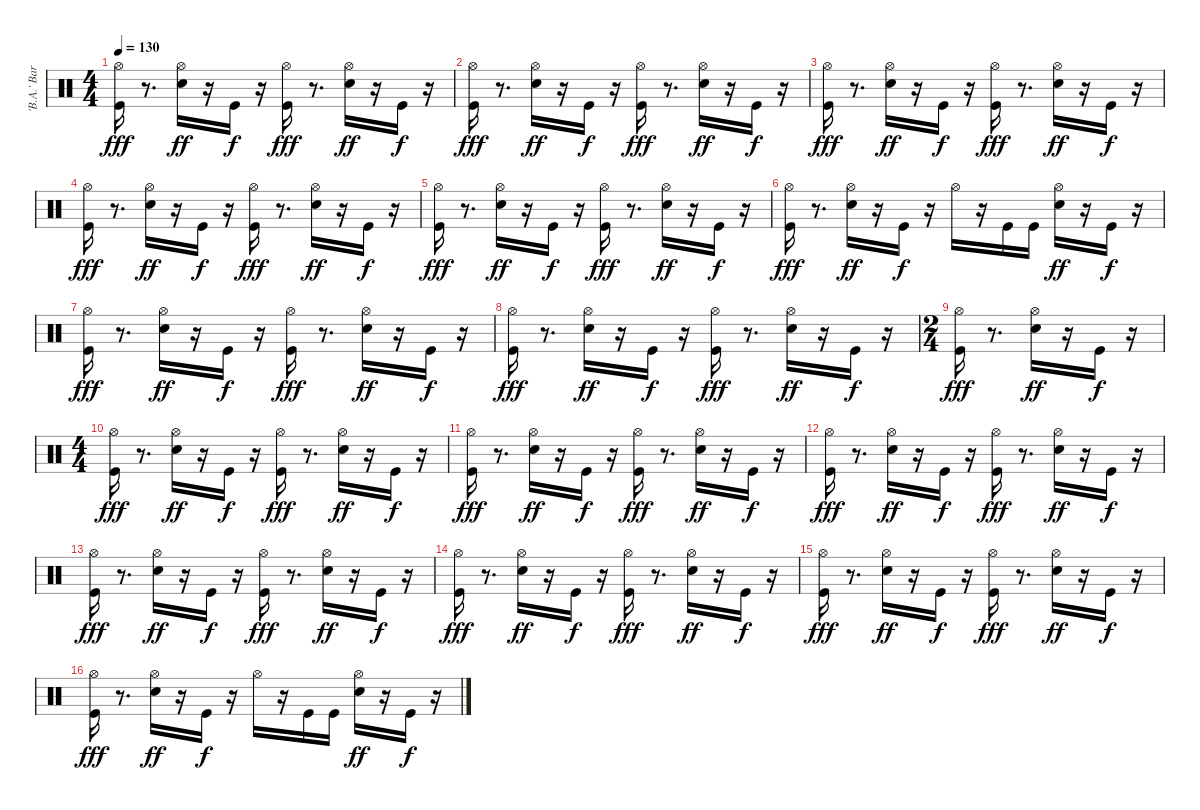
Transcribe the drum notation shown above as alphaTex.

\track ("'B.A.' Baracus" "'B.A.' Bar") {instrument percussion}
\staff {score}
\articulation defaults
\ts (4 4)
\tempo 130
\clef neutral
\ks c
("Hi-Hat (open)" "Kick (hit)").16{dy fff} r.8{d} ("Hi-Hat (open)" "Snare (hit) 2").16{dy ff} r.16 "Kick (hit)".16{dy f} r.16 ("Hi-Hat (open)" "Kick (hit)").16{dy fff} r.8{d} ("Hi-Hat (open)" "Snare (hit) 2").16{dy ff} r.16 "Kick (hit)".16{dy f} r.16 |
("Hi-Hat (open)" "Kick (hit)").16{dy fff} r.8{d} ("Hi-Hat (open)" "Snare (hit) 2").16{dy ff} r.16 "Kick (hit)".16{dy f} r.16 ("Hi-Hat (open)" "Kick (hit)").16{dy fff} r.8{d} ("Hi-Hat (open)" "Snare (hit) 2").16{dy ff} r.16 "Kick (hit)".16{dy f} r.16 |
("Hi-Hat (open)" "Kick (hit)").16{dy fff} r.8{d} ("Hi-Hat (open)" "Snare (hit) 2").16{dy ff} r.16 "Kick (hit)".16{dy f} r.16 ("Hi-Hat (open)" "Kick (hit)").16{dy fff} r.8{d} ("Hi-Hat (open)" "Snare (hit) 2").16{dy ff} r.16 "Kick (hit)".16{dy f} r.16 |
("Hi-Hat (open)" "Kick (hit)").16{dy fff} r.8{d} ("Hi-Hat (open)" "Snare (hit) 2").16{dy ff} r.16 "Kick (hit)".16{dy f} r.16 ("Hi-Hat (open)" "Kick (hit)").16{dy fff} r.8{d} ("Hi-Hat (open)" "Snare (hit) 2").16{dy ff} r.16 "Kick (hit)".16{dy f} r.16 |
("Hi-Hat (open)" "Kick (hit)").16{dy fff} r.8{d} ("Hi-Hat (open)" "Snare (hit) 2").16{dy ff} r.16 "Kick (hit)".16{dy f} r.16 ("Hi-Hat (open)" "Kick (hit)").16{dy fff} r.8{d} ("Hi-Hat (open)" "Snare (hit) 2").16{dy ff} r.16 "Kick (hit)".16{dy f} r.16 |
("Hi-Hat (open)" "Kick (hit)").16{dy fff} r.8{d} ("Hi-Hat (open)" "Snare (hit) 2").16{dy ff} r.16 "Kick (hit)".16{dy f} r.16 "Hi-Hat (open)".16 r.16 "Kick (hit)".16 "Kick (hit)".16 ("Hi-Hat (open)" "Snare (hit) 2").16{dy ff} r.16 "Kick (hit)".16{dy f} r.16 |
("Hi-Hat (open)" "Kick (hit)").16{dy fff} r.8{d} ("Hi-Hat (open)" "Snare (hit) 2").16{dy ff} r.16 "Kick (hit)".16{dy f} r.16 ("Hi-Hat (open)" "Kick (hit)").16{dy fff} r.8{d} ("Hi-Hat (open)" "Snare (hit) 2").16{dy ff} r.16 "Kick (hit)".16{dy f} r.16 |
("Hi-Hat (open)" "Kick (hit)").16{dy fff} r.8{d} ("Hi-Hat (open)" "Snare (hit) 2").16{dy ff} r.16 "Kick (hit)".16{dy f} r.16 ("Hi-Hat (open)" "Kick (hit)").16{dy fff} r.8{d} ("Hi-Hat (open)" "Snare (hit) 2").16{dy ff} r.16 "Kick (hit)".16{dy f} r.16 |
\ts (2 4)
("Hi-Hat (open)" "Kick (hit)").16{dy fff} r.8{d} ("Hi-Hat (open)" "Snare (hit) 2").16{dy ff} r.16 "Kick (hit)".16{dy f} r.16 |
\ts (4 4)
("Hi-Hat (open)" "Kick (hit)").16{dy fff} r.8{d} ("Hi-Hat (open)" "Snare (hit) 2").16{dy ff} r.16 "Kick (hit)".16{dy f} r.16 ("Hi-Hat (open)" "Kick (hit)").16{dy fff} r.8{d} ("Hi-Hat (open)" "Snare (hit) 2").16{dy ff} r.16 "Kick (hit)".16{dy f} r.16 |
("Hi-Hat (open)" "Kick (hit)").16{dy fff} r.8{d} ("Hi-Hat (open)" "Snare (hit) 2").16{dy ff} r.16 "Kick (hit)".16{dy f} r.16 ("Hi-Hat (open)" "Kick (hit)").16{dy fff} r.8{d} ("Hi-Hat (open)" "Snare (hit) 2").16{dy ff} r.16 "Kick (hit)".16{dy f} r.16 |
("Hi-Hat (open)" "Kick (hit)").16{dy fff} r.8{d} ("Hi-Hat (open)" "Snare (hit) 2").16{dy ff} r.16 "Kick (hit)".16{dy f} r.16 ("Hi-Hat (open)" "Kick (hit)").16{dy fff} r.8{d} ("Hi-Hat (open)" "Snare (hit) 2").16{dy ff} r.16 "Kick (hit)".16{dy f} r.16 |
("Hi-Hat (open)" "Kick (hit)").16{dy fff} r.8{d} ("Hi-Hat (open)" "Snare (hit) 2").16{dy ff} r.16 "Kick (hit)".16{dy f} r.16 ("Hi-Hat (open)" "Kick (hit)").16{dy fff} r.8{d} ("Hi-Hat (open)" "Snare (hit) 2").16{dy ff} r.16 "Kick (hit)".16{dy f} r.16 |
("Hi-Hat (open)" "Kick (hit)").16{dy fff} r.8{d} ("Hi-Hat (open)" "Snare (hit) 2").16{dy ff} r.16 "Kick (hit)".16{dy f} r.16 ("Hi-Hat (open)" "Kick (hit)").16{dy fff} r.8{d} ("Hi-Hat (open)" "Snare (hit) 2").16{dy ff} r.16 "Kick (hit)".16{dy f} r.16 |
("Hi-Hat (open)" "Kick (hit)").16{dy fff} r.8{d} ("Hi-Hat (open)" "Snare (hit) 2").16{dy ff} r.16 "Kick (hit)".16{dy f} r.16 ("Hi-Hat (open)" "Kick (hit)").16{dy fff} r.8{d} ("Hi-Hat (open)" "Snare (hit) 2").16{dy ff} r.16 "Kick (hit)".16{dy f} r.16 |
("Hi-Hat (open)" "Kick (hit)").16{dy fff} r.8{d} ("Hi-Hat (open)" "Snare (hit) 2").16{dy ff} r.16 "Kick (hit)".16{dy f} r.16 "Hi-Hat (open)".16 r.16 "Kick (hit)".16 "Kick (hit)".16 ("Hi-Hat (open)" "Snare (hit) 2").16{dy ff} r.16 "Kick (hit)".16{dy f} r.16
